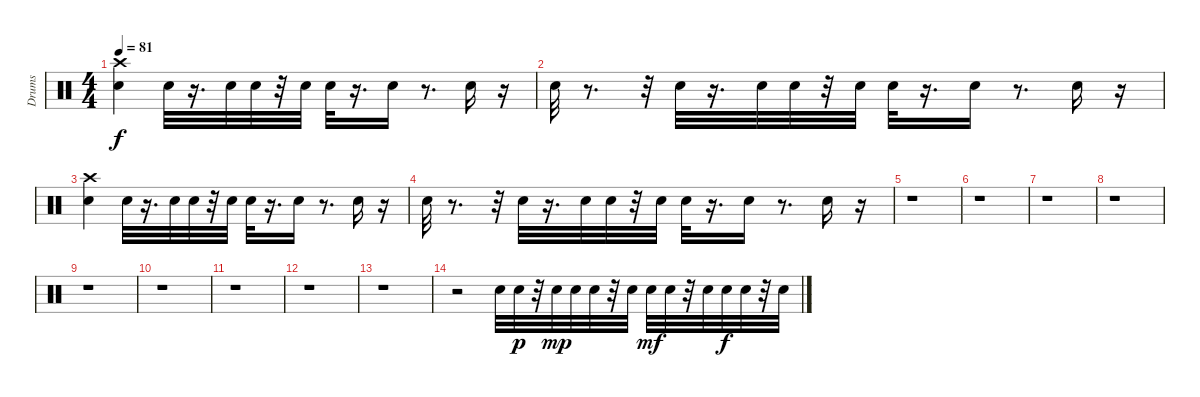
\track ("Drums" "Drums") {instrument percussion}
\staff {score}
\articulation defaults
\ts (4 4)
\tempo 81
\clef neutral
\ks c
("Crash high (hit)" "Snare (hit) 2").4{dy f} "Snare (hit) 2".32 r.16{d} "Snare (hit) 2".32 "Snare (hit) 2".32 r.32 "Snare (hit) 2".32 "Snare (hit) 2".32 r.16{d} "Snare (hit) 2".16 r.8{d} "Snare (hit) 2".16 r.16 |
"Snare (hit) 2".32 r.8{d} r.32 "Snare (hit) 2".32 r.16{d} "Snare (hit) 2".32 "Snare (hit) 2".32 r.32 "Snare (hit) 2".32 "Snare (hit) 2".32 r.16{d} "Snare (hit) 2".16 r.8{d} "Snare (hit) 2".16 r.16 |
("Crash high (hit)" "Snare (hit) 2").4 "Snare (hit) 2".32 r.16{d} "Snare (hit) 2".32 "Snare (hit) 2".32 r.32 "Snare (hit) 2".32 "Snare (hit) 2".32 r.16{d} "Snare (hit) 2".16 r.8{d} "Snare (hit) 2".16 r.16 |
"Snare (hit) 2".32 r.8{d} r.32 "Snare (hit) 2".32 r.16{d} "Snare (hit) 2".32 "Snare (hit) 2".32 r.32 "Snare (hit) 2".32 "Snare (hit) 2".32 r.16{d} "Snare (hit) 2".16 r.8{d} "Snare (hit) 2".16 r.16 |
r.1 |
r.1 |
r.1 |
r.1 |
r.1 |
r.1 |
r.1 |
r.1 |
r.1 |
r.2 "Snare (hit) 2".32 "Snare (hit) 2".32{dy p} r.32 "Snare (hit) 2".32{dy mp} "Snare (hit) 2".32 "Snare (hit) 2".32 r.32 "Snare (hit) 2".32 "Snare (hit) 2".32{dy mf} "Snare (hit) 2".32 r.32 "Snare (hit) 2".32 "Snare (hit) 2".32{dy f} "Snare (hit) 2".32 r.32 "Snare (hit) 2".32
